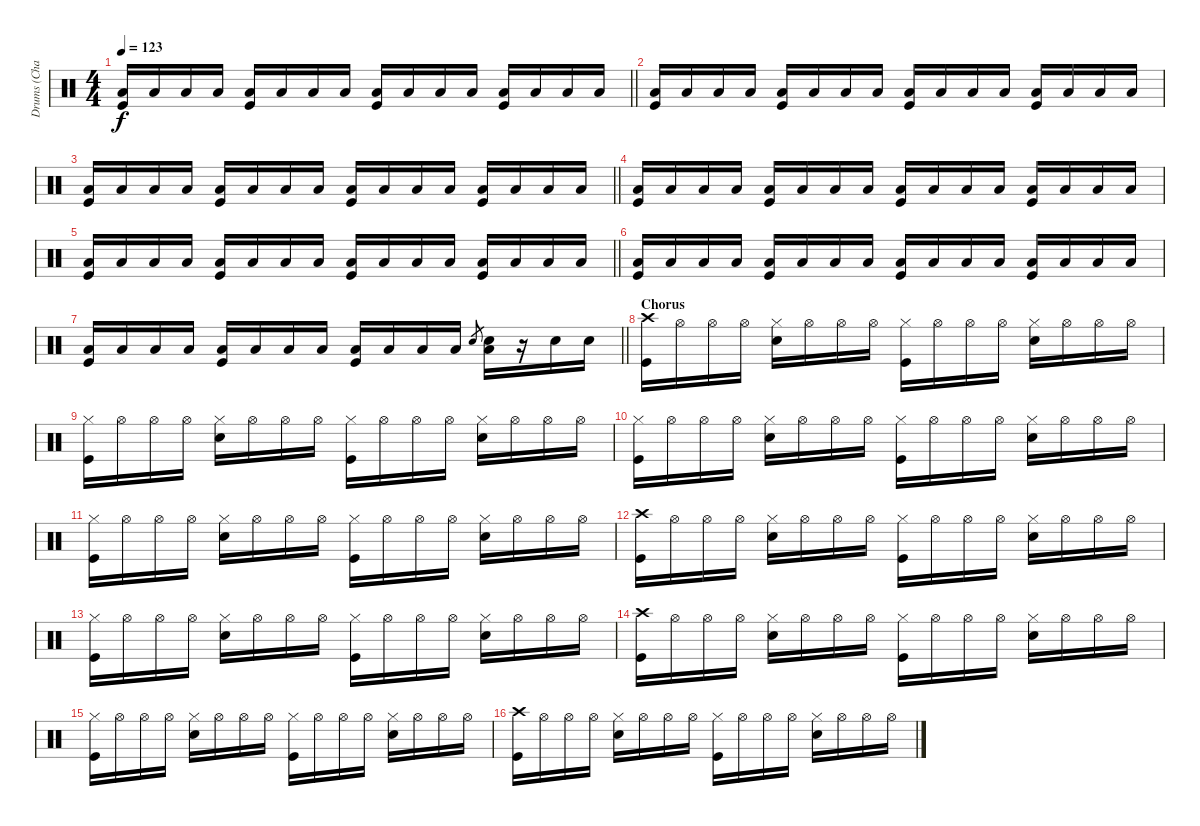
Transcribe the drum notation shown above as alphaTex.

\track ("Drums (Chad Smith)" "Drums (Cha") {instrument percussion}
\staff {score}
\articulation defaults
\ts (4 4)
\tempo 123
\clef neutral
\barLineRight lightlight
\ks c
("Kick (hit)" "Low Floor Tom (hit)").16{dy f} "Low Floor Tom (hit)".16 "Low Floor Tom (hit)".16 "Low Floor Tom (hit)".16 ("Kick (hit)" "Low Floor Tom (hit)").16 "Low Floor Tom (hit)".16 "Low Floor Tom (hit)".16 "Low Floor Tom (hit)".16 ("Kick (hit)" "Low Floor Tom (hit)").16 "Low Floor Tom (hit)".16 "Low Floor Tom (hit)".16 "Low Floor Tom (hit)".16 ("Kick (hit)" "Low Floor Tom (hit)").16 "Low Floor Tom (hit)".16 "Low Floor Tom (hit)".16 "Low Floor Tom (hit)".16 |
("Kick (hit)" "Low Floor Tom (hit)").16 "Low Floor Tom (hit)".16 "Low Floor Tom (hit)".16 "Low Floor Tom (hit)".16 ("Kick (hit)" "Low Floor Tom (hit)").16 "Low Floor Tom (hit)".16 "Low Floor Tom (hit)".16 "Low Floor Tom (hit)".16 ("Kick (hit)" "Low Floor Tom (hit)").16 "Low Floor Tom (hit)".16 "Low Floor Tom (hit)".16 "Low Floor Tom (hit)".16 ("Kick (hit)" "Low Floor Tom (hit)").16 "Low Floor Tom (hit)".16 "Low Floor Tom (hit)".16 "Low Floor Tom (hit)".16 |
\barLineRight lightlight
("Kick (hit)" "Low Floor Tom (hit)").16 "Low Floor Tom (hit)".16 "Low Floor Tom (hit)".16 "Low Floor Tom (hit)".16 ("Kick (hit)" "Low Floor Tom (hit)").16 "Low Floor Tom (hit)".16 "Low Floor Tom (hit)".16 "Low Floor Tom (hit)".16 ("Kick (hit)" "Low Floor Tom (hit)").16 "Low Floor Tom (hit)".16 "Low Floor Tom (hit)".16 "Low Floor Tom (hit)".16 ("Kick (hit)" "Low Floor Tom (hit)").16 "Low Floor Tom (hit)".16 "Low Floor Tom (hit)".16 "Low Floor Tom (hit)".16 |
("Kick (hit)" "Low Floor Tom (hit)").16 "Low Floor Tom (hit)".16 "Low Floor Tom (hit)".16 "Low Floor Tom (hit)".16 ("Kick (hit)" "Low Floor Tom (hit)").16 "Low Floor Tom (hit)".16 "Low Floor Tom (hit)".16 "Low Floor Tom (hit)".16 ("Kick (hit)" "Low Floor Tom (hit)").16 "Low Floor Tom (hit)".16 "Low Floor Tom (hit)".16 "Low Floor Tom (hit)".16 ("Kick (hit)" "Low Floor Tom (hit)").16 "Low Floor Tom (hit)".16 "Low Floor Tom (hit)".16 "Low Floor Tom (hit)".16 |
\barLineRight lightlight
("Kick (hit)" "Low Floor Tom (hit)").16 "Low Floor Tom (hit)".16 "Low Floor Tom (hit)".16 "Low Floor Tom (hit)".16 ("Kick (hit)" "Low Floor Tom (hit)").16 "Low Floor Tom (hit)".16 "Low Floor Tom (hit)".16 "Low Floor Tom (hit)".16 ("Kick (hit)" "Low Floor Tom (hit)").16 "Low Floor Tom (hit)".16 "Low Floor Tom (hit)".16 "Low Floor Tom (hit)".16 ("Kick (hit)" "Low Floor Tom (hit)").16 "Low Floor Tom (hit)".16 "Low Floor Tom (hit)".16 "Low Floor Tom (hit)".16 |
("Kick (hit)" "Low Floor Tom (hit)").16 "Low Floor Tom (hit)".16 "Low Floor Tom (hit)".16 "Low Floor Tom (hit)".16 ("Kick (hit)" "Low Floor Tom (hit)").16 "Low Floor Tom (hit)".16 "Low Floor Tom (hit)".16 "Low Floor Tom (hit)".16 ("Kick (hit)" "Low Floor Tom (hit)").16 "Low Floor Tom (hit)".16 "Low Floor Tom (hit)".16 "Low Floor Tom (hit)".16 ("Kick (hit)" "Low Floor Tom (hit)").16 "Low Floor Tom (hit)".16 "Low Floor Tom (hit)".16 "Low Floor Tom (hit)".16 |
\barLineRight lightlight
("Kick (hit)" "Low Floor Tom (hit)").16 "Low Floor Tom (hit)".16 "Low Floor Tom (hit)".16 "Low Floor Tom (hit)".16 ("Kick (hit)" "Low Floor Tom (hit)").16 "Low Floor Tom (hit)".16 "Low Floor Tom (hit)".16 "Low Floor Tom (hit)".16 ("Kick (hit)" "Low Floor Tom (hit)").16 "Low Floor Tom (hit)".16 "Low Floor Tom (hit)".16 "Low Floor Tom (hit)".16 "Snare (hit) 2".8{gr} ("Snare (hit) 2" "Low Floor Tom (hit)").16 r.16 "Snare (hit) 2".16 "Snare (hit) 2".16 |
\section ("" "Chorus")
("Crash high (hit)" "Kick (hit)").16 "Hi-Hat (open)".16 "Hi-Hat (open)".16 "Hi-Hat (open)".16 ("Hi-Hat (closed)" "Snare (hit) 2").16 "Hi-Hat (open)".16 "Hi-Hat (open)".16 "Hi-Hat (open)".16 ("Hi-Hat (closed)" "Kick (hit)").16 "Hi-Hat (open)".16 "Hi-Hat (open)".16 "Hi-Hat (open)".16 ("Hi-Hat (closed)" "Snare (hit) 2").16 "Hi-Hat (open)".16 "Hi-Hat (open)".16 "Hi-Hat (open)".16 |
("Hi-Hat (closed)" "Kick (hit)").16 "Hi-Hat (open)".16 "Hi-Hat (open)".16 "Hi-Hat (open)".16 ("Hi-Hat (closed)" "Snare (hit) 2").16 "Hi-Hat (open)".16 "Hi-Hat (open)".16 "Hi-Hat (open)".16 ("Hi-Hat (closed)" "Kick (hit)").16 "Hi-Hat (open)".16 "Hi-Hat (open)".16 "Hi-Hat (open)".16 ("Hi-Hat (closed)" "Snare (hit) 2").16 "Hi-Hat (open)".16 "Hi-Hat (open)".16 "Hi-Hat (open)".16 |
("Hi-Hat (closed)" "Kick (hit)").16 "Hi-Hat (open)".16 "Hi-Hat (open)".16 "Hi-Hat (open)".16 ("Hi-Hat (closed)" "Snare (hit) 2").16 "Hi-Hat (open)".16 "Hi-Hat (open)".16 "Hi-Hat (open)".16 ("Hi-Hat (closed)" "Kick (hit)").16 "Hi-Hat (open)".16 "Hi-Hat (open)".16 "Hi-Hat (open)".16 ("Hi-Hat (closed)" "Snare (hit) 2").16 "Hi-Hat (open)".16 "Hi-Hat (open)".16 "Hi-Hat (open)".16 |
("Hi-Hat (closed)" "Kick (hit)").16 "Hi-Hat (open)".16 "Hi-Hat (open)".16 "Hi-Hat (open)".16 ("Hi-Hat (closed)" "Snare (hit) 2").16 "Hi-Hat (open)".16 "Hi-Hat (open)".16 "Hi-Hat (open)".16 ("Hi-Hat (closed)" "Kick (hit)").16 "Hi-Hat (open)".16 "Hi-Hat (open)".16 "Hi-Hat (open)".16 ("Hi-Hat (closed)" "Snare (hit) 2").16 "Hi-Hat (open)".16 "Hi-Hat (open)".16 "Hi-Hat (open)".16 |
("Crash high (hit)" "Kick (hit)").16 "Hi-Hat (open)".16 "Hi-Hat (open)".16 "Hi-Hat (open)".16 ("Hi-Hat (closed)" "Snare (hit) 2").16 "Hi-Hat (open)".16 "Hi-Hat (open)".16 "Hi-Hat (open)".16 ("Hi-Hat (closed)" "Kick (hit)").16 "Hi-Hat (open)".16 "Hi-Hat (open)".16 "Hi-Hat (open)".16 ("Hi-Hat (closed)" "Snare (hit) 2").16 "Hi-Hat (open)".16 "Hi-Hat (open)".16 "Hi-Hat (open)".16 |
("Hi-Hat (closed)" "Kick (hit)").16 "Hi-Hat (open)".16 "Hi-Hat (open)".16 "Hi-Hat (open)".16 ("Hi-Hat (closed)" "Snare (hit) 2").16 "Hi-Hat (open)".16 "Hi-Hat (open)".16 "Hi-Hat (open)".16 ("Hi-Hat (closed)" "Kick (hit)").16 "Hi-Hat (open)".16 "Hi-Hat (open)".16 "Hi-Hat (open)".16 ("Hi-Hat (closed)" "Snare (hit) 2").16 "Hi-Hat (open)".16 "Hi-Hat (open)".16 "Hi-Hat (open)".16 |
("Crash high (hit)" "Kick (hit)").16 "Hi-Hat (open)".16 "Hi-Hat (open)".16 "Hi-Hat (open)".16 ("Hi-Hat (closed)" "Snare (hit) 2").16 "Hi-Hat (open)".16 "Hi-Hat (open)".16 "Hi-Hat (open)".16 ("Hi-Hat (closed)" "Kick (hit)").16 "Hi-Hat (open)".16 "Hi-Hat (open)".16 "Hi-Hat (open)".16 ("Hi-Hat (closed)" "Snare (hit) 2").16 "Hi-Hat (open)".16 "Hi-Hat (open)".16 "Hi-Hat (open)".16 |
("Hi-Hat (closed)" "Kick (hit)").16 "Hi-Hat (open)".16 "Hi-Hat (open)".16 "Hi-Hat (open)".16 ("Hi-Hat (closed)" "Snare (hit) 2").16 "Hi-Hat (open)".16 "Hi-Hat (open)".16 "Hi-Hat (open)".16 ("Hi-Hat (closed)" "Kick (hit)").16 "Hi-Hat (open)".16 "Hi-Hat (open)".16 "Hi-Hat (open)".16 ("Hi-Hat (closed)" "Snare (hit) 2").16 "Hi-Hat (open)".16 "Hi-Hat (open)".16 "Hi-Hat (open)".16 |
("Crash high (hit)" "Kick (hit)").16 "Hi-Hat (open)".16 "Hi-Hat (open)".16 "Hi-Hat (open)".16 ("Hi-Hat (closed)" "Snare (hit) 2").16 "Hi-Hat (open)".16 "Hi-Hat (open)".16 "Hi-Hat (open)".16 ("Hi-Hat (closed)" "Kick (hit)").16 "Hi-Hat (open)".16 "Hi-Hat (open)".16 "Hi-Hat (open)".16 ("Hi-Hat (closed)" "Snare (hit) 2").16 "Hi-Hat (open)".16 "Hi-Hat (open)".16 "Hi-Hat (open)".16
